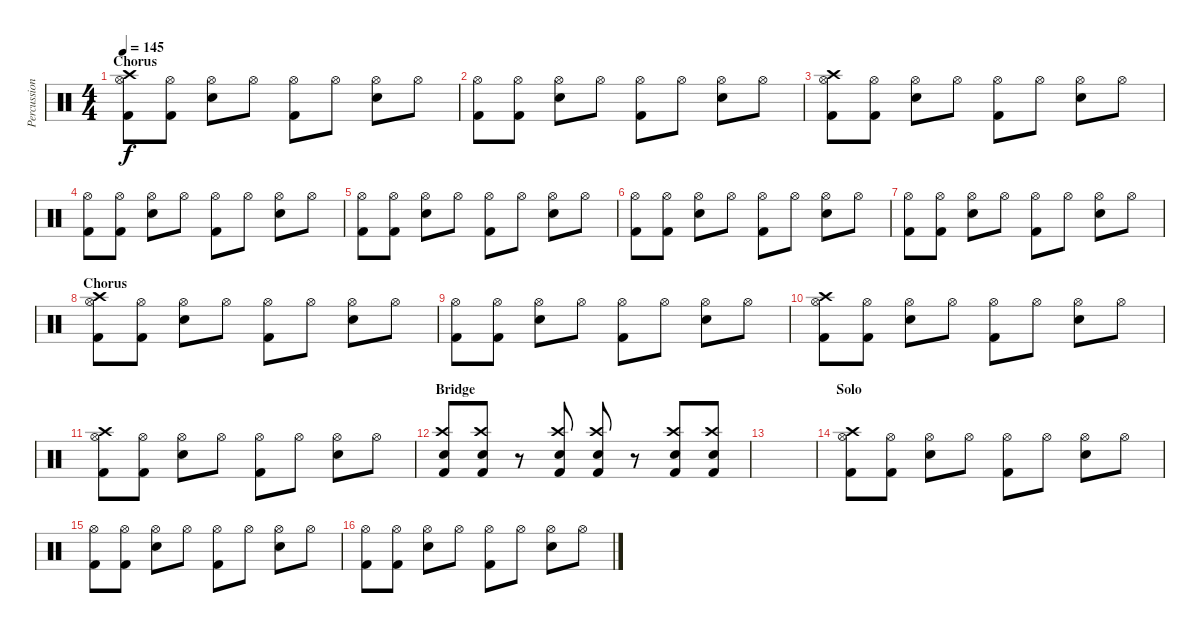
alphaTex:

\track ("Percussion" "Percussion") {instrument percussion}
\staff {score}
\articulation defaults
\ts (4 4)
\section ("" "Chorus")
\tempo 145
\clef neutral
\ks c
("Hi-Hat (open)" "Kick (hit) 2" "Crash high (hit)").8{dy f} ("Hi-Hat (open)" "Kick (hit) 2").8 ("Hi-Hat (open)" "Snare (hit) 2").8 "Hi-Hat (open)".8 ("Hi-Hat (open)" "Kick (hit) 2").8 "Hi-Hat (open)".8 ("Hi-Hat (open)" "Snare (hit) 2").8 "Hi-Hat (open)".8 |
("Hi-Hat (open)" "Kick (hit) 2").8 ("Hi-Hat (open)" "Kick (hit) 2").8 ("Hi-Hat (open)" "Snare (hit) 2").8 "Hi-Hat (open)".8 ("Hi-Hat (open)" "Kick (hit) 2").8 "Hi-Hat (open)".8 ("Hi-Hat (open)" "Snare (hit) 2").8 "Hi-Hat (open)".8 |
("Hi-Hat (open)" "Kick (hit) 2" "Crash high (hit)").8 ("Hi-Hat (open)" "Kick (hit) 2").8 ("Hi-Hat (open)" "Snare (hit) 2").8 "Hi-Hat (open)".8 ("Hi-Hat (open)" "Kick (hit) 2").8 "Hi-Hat (open)".8 ("Hi-Hat (open)" "Snare (hit) 2").8 "Hi-Hat (open)".8 |
("Hi-Hat (open)" "Kick (hit) 2").8 ("Hi-Hat (open)" "Kick (hit) 2").8 ("Hi-Hat (open)" "Snare (hit) 2").8 "Hi-Hat (open)".8 ("Hi-Hat (open)" "Kick (hit) 2").8 "Hi-Hat (open)".8 ("Hi-Hat (open)" "Snare (hit) 2").8 "Hi-Hat (open)".8 |
("Hi-Hat (open)" "Kick (hit) 2").8 ("Hi-Hat (open)" "Kick (hit) 2").8 ("Hi-Hat (open)" "Snare (hit) 2").8 "Hi-Hat (open)".8 ("Hi-Hat (open)" "Kick (hit) 2").8 "Hi-Hat (open)".8 ("Hi-Hat (open)" "Snare (hit) 2").8 "Hi-Hat (open)".8 |
("Hi-Hat (open)" "Kick (hit) 2").8 ("Hi-Hat (open)" "Kick (hit) 2").8 ("Hi-Hat (open)" "Snare (hit) 2").8 "Hi-Hat (open)".8 ("Hi-Hat (open)" "Kick (hit) 2").8 "Hi-Hat (open)".8 ("Hi-Hat (open)" "Snare (hit) 2").8 "Hi-Hat (open)".8 |
("Hi-Hat (open)" "Kick (hit) 2").8 ("Hi-Hat (open)" "Kick (hit) 2").8 ("Hi-Hat (open)" "Snare (hit) 2").8 "Hi-Hat (open)".8 ("Hi-Hat (open)" "Kick (hit) 2").8 "Hi-Hat (open)".8 ("Hi-Hat (open)" "Snare (hit) 2").8 "Hi-Hat (open)".8 |
\section ("" "Chorus")
("Hi-Hat (open)" "Kick (hit) 2" "Crash high (hit)").8 ("Hi-Hat (open)" "Kick (hit) 2").8 ("Hi-Hat (open)" "Snare (hit) 2").8 "Hi-Hat (open)".8 ("Hi-Hat (open)" "Kick (hit) 2").8 "Hi-Hat (open)".8 ("Hi-Hat (open)" "Snare (hit) 2").8 "Hi-Hat (open)".8 |
("Hi-Hat (open)" "Kick (hit) 2").8 ("Hi-Hat (open)" "Kick (hit) 2").8 ("Hi-Hat (open)" "Snare (hit) 2").8 "Hi-Hat (open)".8 ("Hi-Hat (open)" "Kick (hit) 2").8 "Hi-Hat (open)".8 ("Hi-Hat (open)" "Snare (hit) 2").8 "Hi-Hat (open)".8 |
("Hi-Hat (open)" "Kick (hit) 2" "Crash high (hit)").8 ("Hi-Hat (open)" "Kick (hit) 2").8 ("Hi-Hat (open)" "Snare (hit) 2").8 "Hi-Hat (open)".8 ("Hi-Hat (open)" "Kick (hit) 2").8 "Hi-Hat (open)".8 ("Hi-Hat (open)" "Snare (hit) 2").8 "Hi-Hat (open)".8 |
("Hi-Hat (open)" "Kick (hit) 2" "Crash high (hit)").8 ("Hi-Hat (open)" "Kick (hit) 2").8 ("Hi-Hat (open)" "Snare (hit) 2").8 "Hi-Hat (open)".8 ("Hi-Hat (open)" "Kick (hit) 2").8 "Hi-Hat (open)".8 ("Hi-Hat (open)" "Snare (hit) 2").8 "Hi-Hat (open)".8 |
\section ("" "Bridge")
("Kick (hit) 2" "Snare (hit) 2" "Crash high (hit)").8 ("Kick (hit) 2" "Snare (hit) 2" "Crash high (hit)").8 r.8 ("Kick (hit) 2" "Snare (hit) 2" "Crash high (hit)").8 ("Kick (hit) 2" "Snare (hit) 2" "Crash high (hit)").8 r.8 ("Kick (hit) 2" "Snare (hit) 2" "Crash high (hit)").8 ("Kick (hit) 2" "Snare (hit) 2" "Crash high (hit)").8 |
|
\section ("" "Solo")
("Hi-Hat (open)" "Kick (hit) 2" "Crash high (hit)").8 ("Hi-Hat (open)" "Kick (hit) 2").8 ("Hi-Hat (open)" "Snare (hit) 2").8 "Hi-Hat (open)".8 ("Hi-Hat (open)" "Kick (hit) 2").8 "Hi-Hat (open)".8 ("Hi-Hat (open)" "Snare (hit) 2").8 "Hi-Hat (open)".8 |
("Hi-Hat (open)" "Kick (hit) 2").8 ("Hi-Hat (open)" "Kick (hit) 2").8 ("Hi-Hat (open)" "Snare (hit) 2").8 "Hi-Hat (open)".8 ("Hi-Hat (open)" "Kick (hit) 2").8 "Hi-Hat (open)".8 ("Hi-Hat (open)" "Snare (hit) 2").8 "Hi-Hat (open)".8 |
("Hi-Hat (open)" "Kick (hit) 2").8 ("Hi-Hat (open)" "Kick (hit) 2").8 ("Hi-Hat (open)" "Snare (hit) 2").8 "Hi-Hat (open)".8 ("Hi-Hat (open)" "Kick (hit) 2").8 "Hi-Hat (open)".8 ("Hi-Hat (open)" "Snare (hit) 2").8 "Hi-Hat (open)".8
